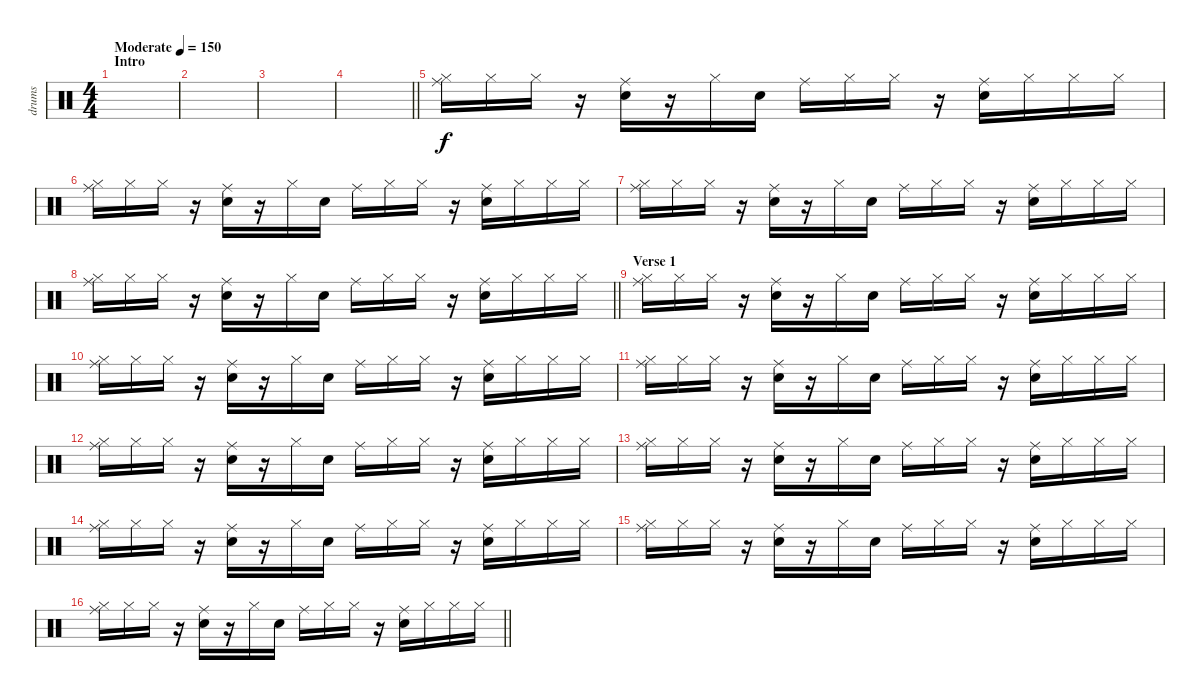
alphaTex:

\track ("drums" "drums") {instrument percussion}
\staff {score}
\articulation defaults
\ts (4 4)
\section ("" "Intro")
\tempo (150 "Moderate")
\clef neutral
\ks c
|
|
|
\barLineRight lightlight
|
("Ride (middle)" "Hi-Hat (closed)").16 "Hi-Hat (closed)".16 "Hi-Hat (closed)".16 r.16 ("Ride (middle)" "Snare (hit) 2").16 r.16 "Hi-Hat (closed)".16 "Snare (hit) 2".16 "Ride (middle)".16 "Hi-Hat (closed)".16 "Hi-Hat (closed)".16 r.16 ("Ride (middle)" "Snare (hit) 2").16 "Hi-Hat (closed)".16 "Hi-Hat (closed)".16 "Hi-Hat (closed)".16 |
("Ride (middle)" "Hi-Hat (closed)").16 "Hi-Hat (closed)".16 "Hi-Hat (closed)".16 r.16 ("Ride (middle)" "Snare (hit) 2").16 r.16 "Hi-Hat (closed)".16 "Snare (hit) 2".16 "Ride (middle)".16 "Hi-Hat (closed)".16 "Hi-Hat (closed)".16 r.16 ("Ride (middle)" "Snare (hit) 2").16 "Hi-Hat (closed)".16 "Hi-Hat (closed)".16 "Hi-Hat (closed)".16 |
("Ride (middle)" "Hi-Hat (closed)").16 "Hi-Hat (closed)".16 "Hi-Hat (closed)".16 r.16 ("Ride (middle)" "Snare (hit) 2").16 r.16 "Hi-Hat (closed)".16 "Snare (hit) 2".16 "Ride (middle)".16 "Hi-Hat (closed)".16 "Hi-Hat (closed)".16 r.16 ("Ride (middle)" "Snare (hit) 2").16 "Hi-Hat (closed)".16 "Hi-Hat (closed)".16 "Hi-Hat (closed)".16 |
\barLineRight lightlight
("Ride (middle)" "Hi-Hat (closed)").16 "Hi-Hat (closed)".16 "Hi-Hat (closed)".16 r.16 ("Ride (middle)" "Snare (hit) 2").16 r.16 "Hi-Hat (closed)".16 "Snare (hit) 2".16 "Ride (middle)".16 "Hi-Hat (closed)".16 "Hi-Hat (closed)".16 r.16 ("Ride (middle)" "Snare (hit) 2").16 "Hi-Hat (closed)".16 "Hi-Hat (closed)".16 "Hi-Hat (closed)".16 |
\section ("" "Verse 1")
("Ride (middle)" "Hi-Hat (closed)").16 "Hi-Hat (closed)".16 "Hi-Hat (closed)".16 r.16 ("Ride (middle)" "Snare (hit) 2").16 r.16 "Hi-Hat (closed)".16 "Snare (hit) 2".16 "Ride (middle)".16 "Hi-Hat (closed)".16 "Hi-Hat (closed)".16 r.16 ("Ride (middle)" "Snare (hit) 2").16 "Hi-Hat (closed)".16 "Hi-Hat (closed)".16 "Hi-Hat (closed)".16 |
("Ride (middle)" "Hi-Hat (closed)").16 "Hi-Hat (closed)".16 "Hi-Hat (closed)".16 r.16 ("Ride (middle)" "Snare (hit) 2").16 r.16 "Hi-Hat (closed)".16 "Snare (hit) 2".16 "Ride (middle)".16 "Hi-Hat (closed)".16 "Hi-Hat (closed)".16 r.16 ("Ride (middle)" "Snare (hit) 2").16 "Hi-Hat (closed)".16 "Hi-Hat (closed)".16 "Hi-Hat (closed)".16 |
("Ride (middle)" "Hi-Hat (closed)").16 "Hi-Hat (closed)".16 "Hi-Hat (closed)".16 r.16 ("Ride (middle)" "Snare (hit) 2").16 r.16 "Hi-Hat (closed)".16 "Snare (hit) 2".16 "Ride (middle)".16 "Hi-Hat (closed)".16 "Hi-Hat (closed)".16 r.16 ("Ride (middle)" "Snare (hit) 2").16 "Hi-Hat (closed)".16 "Hi-Hat (closed)".16 "Hi-Hat (closed)".16 |
("Ride (middle)" "Hi-Hat (closed)").16 "Hi-Hat (closed)".16 "Hi-Hat (closed)".16 r.16 ("Ride (middle)" "Snare (hit) 2").16 r.16 "Hi-Hat (closed)".16 "Snare (hit) 2".16 "Ride (middle)".16 "Hi-Hat (closed)".16 "Hi-Hat (closed)".16 r.16 ("Ride (middle)" "Snare (hit) 2").16 "Hi-Hat (closed)".16 "Hi-Hat (closed)".16 "Hi-Hat (closed)".16 |
("Ride (middle)" "Hi-Hat (closed)").16 "Hi-Hat (closed)".16 "Hi-Hat (closed)".16 r.16 ("Ride (middle)" "Snare (hit) 2").16 r.16 "Hi-Hat (closed)".16 "Snare (hit) 2".16 "Ride (middle)".16 "Hi-Hat (closed)".16 "Hi-Hat (closed)".16 r.16 ("Ride (middle)" "Snare (hit) 2").16 "Hi-Hat (closed)".16 "Hi-Hat (closed)".16 "Hi-Hat (closed)".16 |
("Ride (middle)" "Hi-Hat (closed)").16 "Hi-Hat (closed)".16 "Hi-Hat (closed)".16 r.16 ("Ride (middle)" "Snare (hit) 2").16 r.16 "Hi-Hat (closed)".16 "Snare (hit) 2".16 "Ride (middle)".16 "Hi-Hat (closed)".16 "Hi-Hat (closed)".16 r.16 ("Ride (middle)" "Snare (hit) 2").16 "Hi-Hat (closed)".16 "Hi-Hat (closed)".16 "Hi-Hat (closed)".16 |
("Ride (middle)" "Hi-Hat (closed)").16 "Hi-Hat (closed)".16 "Hi-Hat (closed)".16 r.16 ("Ride (middle)" "Snare (hit) 2").16 r.16 "Hi-Hat (closed)".16 "Snare (hit) 2".16 "Ride (middle)".16 "Hi-Hat (closed)".16 "Hi-Hat (closed)".16 r.16 ("Ride (middle)" "Snare (hit) 2").16 "Hi-Hat (closed)".16 "Hi-Hat (closed)".16 "Hi-Hat (closed)".16 |
\barLineRight lightlight
("Ride (middle)" "Hi-Hat (closed)").16 "Hi-Hat (closed)".16 "Hi-Hat (closed)".16 r.16 ("Ride (middle)" "Snare (hit) 2").16 r.16 "Hi-Hat (closed)".16 "Snare (hit) 2".16 "Ride (middle)".16 "Hi-Hat (closed)".16 "Hi-Hat (closed)".16 r.16 ("Ride (middle)" "Snare (hit) 2").16 "Hi-Hat (closed)".16 "Hi-Hat (closed)".16 "Hi-Hat (closed)".16
